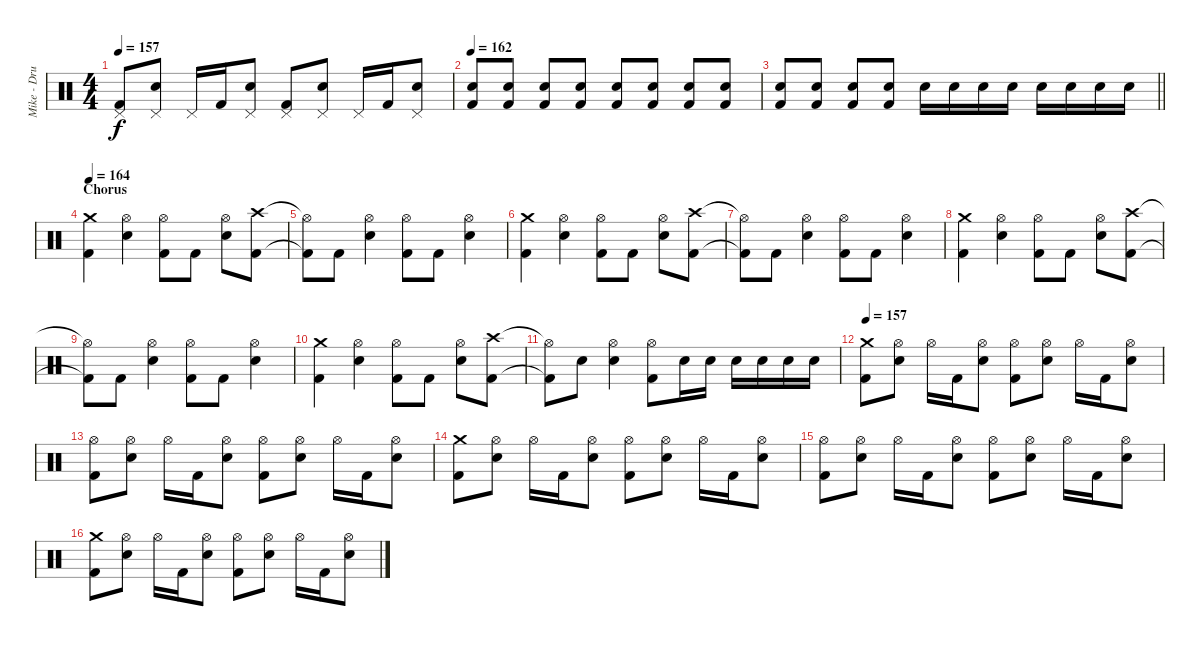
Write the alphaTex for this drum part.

\track ("Mike - Drums" "Mike - Dru") {instrument percussion}
\staff {score}
\articulation defaults
\ts (4 4)
\tempo 157
\clef neutral
\ks c
("Pedal Hi-Hat (hit)" "Kick (hit) 2").8{dy f} ("Pedal Hi-Hat (hit)" "Electric Snare (hit)").8 "Pedal Hi-Hat (hit)".16 "Kick (hit) 2".16 ("Pedal Hi-Hat (hit)" "Electric Snare (hit)").8 ("Pedal Hi-Hat (hit)" "Kick (hit) 2").8 ("Pedal Hi-Hat (hit)" "Electric Snare (hit)").8 "Pedal Hi-Hat (hit)".16 "Kick (hit) 2".16 ("Pedal Hi-Hat (hit)" "Electric Snare (hit)").8 |
\tempo 162
("Electric Snare (hit)" "Kick (hit) 2").8{volume 6} ("Electric Snare (hit)" "Kick (hit) 2").8{volume 12} ("Electric Snare (hit)" "Kick (hit) 2").8 ("Electric Snare (hit)" "Kick (hit) 2").8 ("Electric Snare (hit)" "Kick (hit) 2").8 ("Electric Snare (hit)" "Kick (hit) 2").8 ("Electric Snare (hit)" "Kick (hit) 2").8 ("Electric Snare (hit)" "Kick (hit) 2").8 |
\barLineRight lightlight
("Electric Snare (hit)" "Kick (hit) 2").8 ("Electric Snare (hit)" "Kick (hit) 2").8 ("Electric Snare (hit)" "Kick (hit) 2").8 ("Electric Snare (hit)" "Kick (hit) 2").8 "Electric Snare (hit)".16 "Electric Snare (hit)".16 "Electric Snare (hit)".16 "Electric Snare (hit)".16 "Electric Snare (hit)".16 "Electric Snare (hit)".16 "Electric Snare (hit)".16 "Electric Snare (hit)".16 |
\section ("" "Chorus")
\tempo 164
("Crash medium (hit)" "Kick (hit) 2").4 ("Hi-Hat (open)" "Electric Snare (hit)").4 ("Hi-Hat (open)" "Kick (hit) 2").8 "Kick (hit) 2".8 ("Hi-Hat (open)" "Electric Snare (hit)").8 ("Crash high (hit)" "Kick (hit) 2").8 |
("Hi-Hat (open)"{t} "Kick (hit) 2"{t}).8 "Kick (hit) 2".8 ("Hi-Hat (open)" "Electric Snare (hit)").4 ("Hi-Hat (open)" "Kick (hit) 2").8 "Kick (hit) 2".8 ("Hi-Hat (open)" "Electric Snare (hit)").4 |
("Crash medium (hit)" "Kick (hit) 2").4 ("Hi-Hat (open)" "Electric Snare (hit)").4 ("Hi-Hat (open)" "Kick (hit) 2").8 "Kick (hit) 2".8 ("Hi-Hat (open)" "Electric Snare (hit)").8 ("Crash high (hit)" "Kick (hit) 2").8 |
("Hi-Hat (open)"{t} "Kick (hit) 2"{t}).8 "Kick (hit) 2".8 ("Hi-Hat (open)" "Electric Snare (hit)").4 ("Hi-Hat (open)" "Kick (hit) 2").8 "Kick (hit) 2".8 ("Hi-Hat (open)" "Electric Snare (hit)").4 |
("Crash medium (hit)" "Kick (hit) 2").4 ("Hi-Hat (open)" "Electric Snare (hit)").4 ("Hi-Hat (open)" "Kick (hit) 2").8 "Kick (hit) 2".8 ("Hi-Hat (open)" "Electric Snare (hit)").8 ("Crash high (hit)" "Kick (hit) 2").8 |
("Hi-Hat (open)"{t} "Kick (hit) 2"{t}).8 "Kick (hit) 2".8 ("Hi-Hat (open)" "Electric Snare (hit)").4 ("Hi-Hat (open)" "Kick (hit) 2").8 "Kick (hit) 2".8 ("Hi-Hat (open)" "Electric Snare (hit)").4 |
("Crash medium (hit)" "Kick (hit) 2").4 ("Hi-Hat (open)" "Electric Snare (hit)").4 ("Hi-Hat (open)" "Kick (hit) 2").8 "Kick (hit) 2".8 ("Hi-Hat (open)" "Electric Snare (hit)").8 ("Crash high (hit)" "Kick (hit) 2").8 |
("Hi-Hat (open)"{t} "Kick (hit) 2"{t}).8 "Electric Snare (hit)".8 ("Hi-Hat (open)" "Electric Snare (hit)").4 ("Hi-Hat (open)" "Kick (hit) 2").8 "Electric Snare (hit)".16 "Electric Snare (hit)".16 "Electric Snare (hit)".16 "Electric Snare (hit)".16 "Electric Snare (hit)".16 "Electric Snare (hit)".16 |
\tempo 157
("Crash medium (hit)" "Kick (hit) 2").8 ("Hi-Hat (open)" "Electric Snare (hit)").8 "Hi-Hat (open)".16 "Kick (hit) 2".16 ("Hi-Hat (open)" "Electric Snare (hit)").8 ("Hi-Hat (open)" "Kick (hit) 2").8 ("Hi-Hat (open)" "Electric Snare (hit)").8 "Hi-Hat (open)".16 "Kick (hit) 2".16 ("Hi-Hat (open)" "Electric Snare (hit)").8 |
("Hi-Hat (open)" "Kick (hit) 2").8 ("Hi-Hat (open)" "Electric Snare (hit)").8 "Hi-Hat (open)".16 "Kick (hit) 2".16 ("Hi-Hat (open)" "Electric Snare (hit)").8 ("Hi-Hat (open)" "Kick (hit) 2").8 ("Hi-Hat (open)" "Electric Snare (hit)").8 "Hi-Hat (open)".16 "Kick (hit) 2".16 ("Hi-Hat (open)" "Electric Snare (hit)").8 |
("Crash medium (hit)" "Kick (hit) 2").8 ("Hi-Hat (open)" "Electric Snare (hit)").8 "Hi-Hat (open)".16 "Kick (hit) 2".16 ("Hi-Hat (open)" "Electric Snare (hit)").8 ("Hi-Hat (open)" "Kick (hit) 2").8 ("Hi-Hat (open)" "Electric Snare (hit)").8 "Hi-Hat (open)".16 "Kick (hit) 2".16 ("Hi-Hat (open)" "Electric Snare (hit)").8 |
("Hi-Hat (open)" "Kick (hit) 2").8 ("Hi-Hat (open)" "Electric Snare (hit)").8 "Hi-Hat (open)".16 "Kick (hit) 2".16 ("Hi-Hat (open)" "Electric Snare (hit)").8 ("Hi-Hat (open)" "Kick (hit) 2").8 ("Hi-Hat (open)" "Electric Snare (hit)").8 "Hi-Hat (open)".16 "Kick (hit) 2".16 ("Hi-Hat (open)" "Electric Snare (hit)").8 |
("Crash medium (hit)" "Kick (hit) 2").8 ("Hi-Hat (open)" "Electric Snare (hit)").8 "Hi-Hat (open)".16 "Kick (hit) 2".16 ("Hi-Hat (open)" "Electric Snare (hit)").8 ("Hi-Hat (open)" "Kick (hit) 2").8 ("Hi-Hat (open)" "Electric Snare (hit)").8 "Hi-Hat (open)".16 "Kick (hit) 2".16 ("Hi-Hat (open)" "Electric Snare (hit)").8
